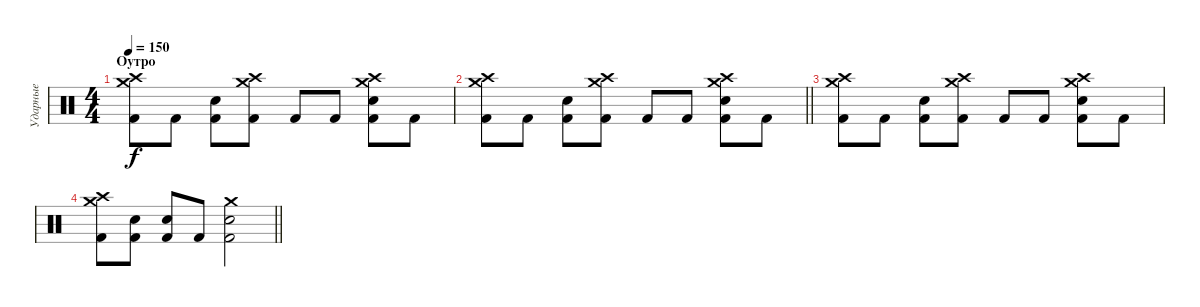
\track ("Ударные" "Ударные") {instrument percussion}
\staff {score}
\articulation defaults
\ts (4 4)
\section ("" "Оутро")
\tempo 150
\clef neutral
\ks c
("Crash high (hit)" "Crash medium (hit)" "Kick (hit) 2").8{dy f} "Kick (hit) 2".8 ("Snare (hit) 2" "Kick (hit) 2").8 ("Crash high (hit)" "Crash medium (hit)" "Kick (hit) 2").8 "Kick (hit) 2".8 "Kick (hit) 2".8 ("Crash high (hit)" "Crash medium (hit)" "Snare (hit) 2" "Kick (hit) 2").8 "Kick (hit) 2".8 |
\barLineRight lightlight
("Crash high (hit)" "Crash medium (hit)" "Kick (hit) 2").8 "Kick (hit) 2".8 ("Snare (hit) 2" "Kick (hit) 2").8 ("Crash high (hit)" "Crash medium (hit)" "Kick (hit) 2").8 "Kick (hit) 2".8 "Kick (hit) 2".8 ("Crash high (hit)" "Crash medium (hit)" "Snare (hit) 2" "Kick (hit) 2").8 "Kick (hit) 2".8 |
("Crash high (hit)" "Crash medium (hit)" "Kick (hit) 2").8 "Kick (hit) 2".8 ("Snare (hit) 2" "Kick (hit) 2").8 ("Crash high (hit)" "Crash medium (hit)" "Kick (hit) 2").8 "Kick (hit) 2".8 "Kick (hit) 2".8 ("Crash high (hit)" "Crash medium (hit)" "Snare (hit) 2" "Kick (hit) 2").8 "Kick (hit) 2".8 |
\barLineRight lightlight
("Crash high (hit)" "Crash medium (hit)" "Kick (hit) 2").8 ("Snare (hit) 2" "Kick (hit) 2").8 ("Snare (hit) 2" "Kick (hit) 2").8 "Kick (hit) 2".8 ("Crash medium (hit)" "Snare (hit) 2" "Kick (hit) 2").2
